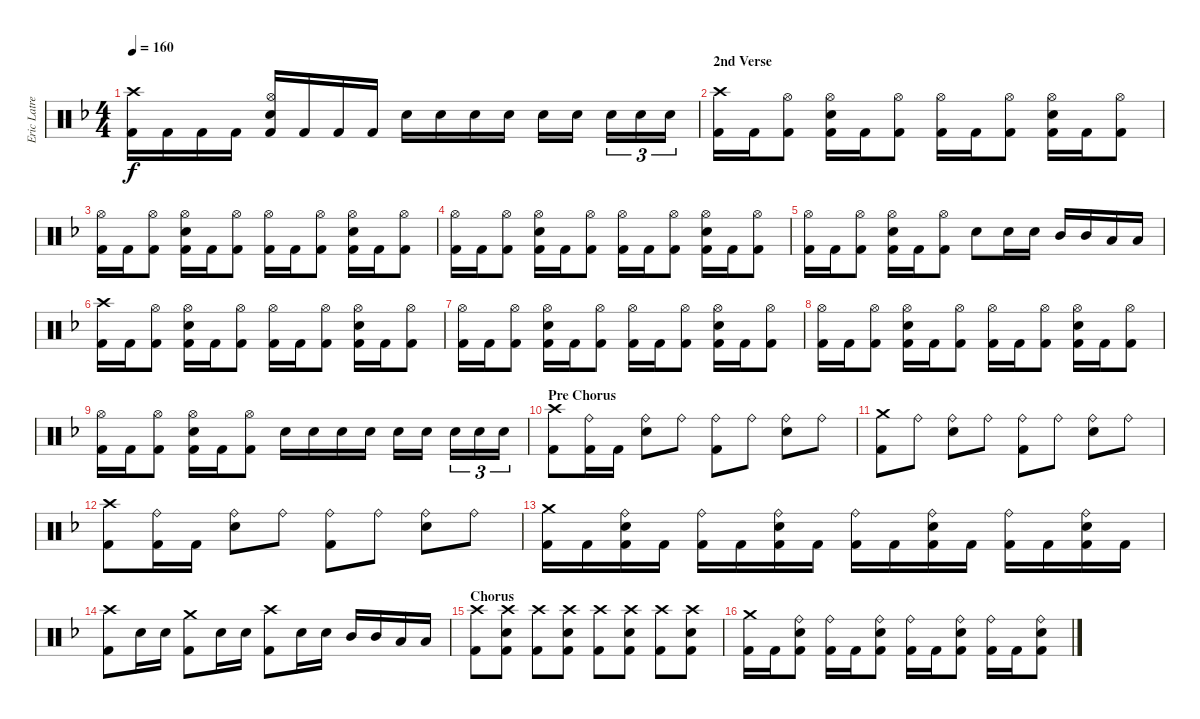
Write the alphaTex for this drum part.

\track ("Eric Latreille" "Eric Latre") {instrument percussion}
\staff {score}
\articulation defaults
\ts (4 4)
\tempo 160
\clef neutral
\ks dminor
("Crash high (hit)" "Kick (hit) 2").16{dy f} "Kick (hit) 2".16 "Kick (hit) 2".16 "Kick (hit) 2".16 ("Hi-Hat (open)" "Snare (hit) 2" "Kick (hit) 2").16 "Kick (hit) 2".16 "Kick (hit) 2".16 "Kick (hit) 2".16 "Snare (hit) 2".16 "Snare (hit) 2".16 "Snare (hit) 2".16 "Snare (hit) 2".16 "Snare (hit) 2".16 "Snare (hit) 2".16 "Snare (hit) 2".16{tu (3 2)} "Snare (hit) 2".16{tu (3 2)} "Snare (hit) 2".16{tu (3 2)} |
\section ("" "2nd Verse")
("Crash high (hit)" "Kick (hit) 2").16 "Kick (hit) 2".16 ("Hi-Hat (open)" "Kick (hit) 2").8 ("Hi-Hat (open)" "Snare (hit) 2" "Kick (hit) 2").16 "Kick (hit) 2".16 ("Hi-Hat (open)" "Kick (hit) 2").8 ("Hi-Hat (open)" "Kick (hit) 2").16 "Kick (hit) 2".16 ("Hi-Hat (open)" "Kick (hit) 2").8 ("Hi-Hat (open)" "Snare (hit) 2" "Kick (hit) 2").16 "Kick (hit) 2".16 ("Hi-Hat (open)" "Kick (hit) 2").8 |
("Hi-Hat (open)" "Kick (hit) 2").16 "Kick (hit) 2".16 ("Hi-Hat (open)" "Kick (hit) 2").8 ("Hi-Hat (open)" "Snare (hit) 2" "Kick (hit) 2").16 "Kick (hit) 2".16 ("Hi-Hat (open)" "Kick (hit) 2").8 ("Hi-Hat (open)" "Kick (hit) 2").16 "Kick (hit) 2".16 ("Hi-Hat (open)" "Kick (hit) 2").8 ("Hi-Hat (open)" "Snare (hit) 2" "Kick (hit) 2").16 "Kick (hit) 2".16 ("Hi-Hat (open)" "Kick (hit) 2").8 |
("Hi-Hat (open)" "Kick (hit) 2").16 "Kick (hit) 2".16 ("Hi-Hat (open)" "Kick (hit) 2").8 ("Hi-Hat (open)" "Snare (hit) 2" "Kick (hit) 2").16 "Kick (hit) 2".16 ("Hi-Hat (open)" "Kick (hit) 2").8 ("Hi-Hat (open)" "Kick (hit) 2").16 "Kick (hit) 2".16 ("Hi-Hat (open)" "Kick (hit) 2").8 ("Hi-Hat (open)" "Snare (hit) 2" "Kick (hit) 2").16 "Kick (hit) 2".16 ("Hi-Hat (open)" "Kick (hit) 2").8 |
("Hi-Hat (open)" "Kick (hit) 2").16 "Kick (hit) 2".16 ("Hi-Hat (open)" "Kick (hit) 2").8 ("Hi-Hat (open)" "Snare (hit) 2" "Kick (hit) 2").16 "Kick (hit) 2".16 ("Hi-Hat (open)" "Kick (hit) 2").8 "Snare (hit) 2".8 "Snare (hit) 2".16 "Snare (hit) 2".16 "Mid Tom (hit)".16 "Mid Tom (hit)".16 "Low Tom (hit)".16 "Low Tom (hit)".16 |
("Crash high (hit)" "Kick (hit) 2").16 "Kick (hit) 2".16 ("Hi-Hat (open)" "Kick (hit) 2").8 ("Hi-Hat (open)" "Snare (hit) 2" "Kick (hit) 2").16 "Kick (hit) 2".16 ("Hi-Hat (open)" "Kick (hit) 2").8 ("Hi-Hat (open)" "Kick (hit) 2").16 "Kick (hit) 2".16 ("Hi-Hat (open)" "Kick (hit) 2").8 ("Hi-Hat (open)" "Snare (hit) 2" "Kick (hit) 2").16 "Kick (hit) 2".16 ("Hi-Hat (open)" "Kick (hit) 2").8 |
("Hi-Hat (open)" "Kick (hit) 2").16 "Kick (hit) 2".16 ("Hi-Hat (open)" "Kick (hit) 2").8 ("Hi-Hat (open)" "Snare (hit) 2" "Kick (hit) 2").16 "Kick (hit) 2".16 ("Hi-Hat (open)" "Kick (hit) 2").8 ("Hi-Hat (open)" "Kick (hit) 2").16 "Kick (hit) 2".16 ("Hi-Hat (open)" "Kick (hit) 2").8 ("Hi-Hat (open)" "Snare (hit) 2" "Kick (hit) 2").16 "Kick (hit) 2".16 ("Hi-Hat (open)" "Kick (hit) 2").8 |
("Hi-Hat (open)" "Kick (hit) 2").16 "Kick (hit) 2".16 ("Hi-Hat (open)" "Kick (hit) 2").8 ("Hi-Hat (open)" "Snare (hit) 2" "Kick (hit) 2").16 "Kick (hit) 2".16 ("Hi-Hat (open)" "Kick (hit) 2").8 ("Hi-Hat (open)" "Kick (hit) 2").16 "Kick (hit) 2".16 ("Hi-Hat (open)" "Kick (hit) 2").8 ("Hi-Hat (open)" "Snare (hit) 2" "Kick (hit) 2").16 "Kick (hit) 2".16 ("Hi-Hat (open)" "Kick (hit) 2").8 |
("Hi-Hat (open)" "Kick (hit) 2").16 "Kick (hit) 2".16 ("Hi-Hat (open)" "Kick (hit) 2").8 ("Hi-Hat (open)" "Snare (hit) 2" "Kick (hit) 2").16 "Kick (hit) 2".16 ("Hi-Hat (open)" "Kick (hit) 2").8 "Snare (hit) 2".16 "Snare (hit) 2".16 "Snare (hit) 2".16 "Snare (hit) 2".16 "Snare (hit) 2".16 "Snare (hit) 2".16 "Snare (hit) 2".16{tu (3 2)} "Snare (hit) 2".16{tu (3 2)} "Snare (hit) 2".16{tu (3 2)} |
\section ("" "Pre Chorus")
("Crash high (hit)" "Kick (hit) 2").8 ("Ride (bell)" "Kick (hit) 2").16 "Kick (hit) 2".16 ("Ride (bell)" "Snare (hit) 2").8 "Ride (bell)".8 ("Ride (bell)" "Kick (hit) 2").8 "Ride (bell)".8 ("Ride (bell)" "Snare (hit) 2").8 "Ride (bell)".8 |
("Crash medium (hit)" "Kick (hit) 2").8 "Ride (bell)".8 ("Ride (bell)" "Snare (hit) 2").8 "Ride (bell)".8 ("Ride (bell)" "Kick (hit) 2").8 "Ride (bell)".8 ("Ride (bell)" "Snare (hit) 2").8 "Ride (bell)".8 |
("Crash high (hit)" "Kick (hit) 2").8 ("Ride (bell)" "Kick (hit) 2").16 "Kick (hit) 2".16 ("Ride (bell)" "Snare (hit) 2").8 "Ride (bell)".8 ("Ride (bell)" "Kick (hit) 2").8 "Ride (bell)".8 ("Ride (bell)" "Snare (hit) 2").8 "Ride (bell)".8 |
("Crash medium (hit)" "Kick (hit) 2").16 "Kick (hit) 2".16 ("Ride (bell)" "Snare (hit) 2" "Kick (hit) 2").16 "Kick (hit) 2".16 ("Ride (bell)" "Kick (hit) 2").16 "Kick (hit) 2".16 ("Ride (bell)" "Snare (hit) 2" "Kick (hit) 2").16 "Kick (hit) 2".16 ("Ride (bell)" "Kick (hit) 2").16 "Kick (hit) 2".16 ("Ride (bell)" "Snare (hit) 2" "Kick (hit) 2").16 "Kick (hit) 2".16 ("Ride (bell)" "Kick (hit) 2").16 "Kick (hit) 2".16 ("Ride (bell)" "Snare (hit) 2" "Kick (hit) 2").16 "Kick (hit) 2".16 |
("Crash high (hit)" "Kick (hit) 2").8 "Snare (hit) 2".16 "Snare (hit) 2".16 ("Crash medium (hit)" "Kick (hit) 2").8 "Snare (hit) 2".16 "Snare (hit) 2".16 ("Crash high (hit)" "Kick (hit) 2").8 "Snare (hit) 2".16 "Snare (hit) 2".16 "Mid Tom (hit)".16 "Mid Tom (hit)".16 "Low Tom (hit)".16 "Low Tom (hit)".16 |
\section ("" "Chorus")
("Crash high (hit)" "Kick (hit) 2").8 ("Crash high (hit)" "Snare (hit) 2" "Kick (hit) 2").8 ("Crash high (hit)" "Kick (hit) 2").8 ("Crash high (hit)" "Snare (hit) 2" "Kick (hit) 2").8 ("Crash high (hit)" "Kick (hit) 2").8 ("Crash high (hit)" "Snare (hit) 2" "Kick (hit) 2").8 ("Crash high (hit)" "Kick (hit) 2").8 ("Crash high (hit)" "Snare (hit) 2" "Kick (hit) 2").8 |
("Crash medium (hit)" "Kick (hit) 2").16 "Kick (hit) 2".16 ("Ride (bell)" "Snare (hit) 2" "Kick (hit) 2").8 ("Ride (bell)" "Kick (hit) 2").16 "Kick (hit) 2".16 ("Ride (bell)" "Snare (hit) 2" "Kick (hit) 2").8 ("Ride (bell)" "Kick (hit) 2").16 "Kick (hit) 2".16 ("Ride (bell)" "Snare (hit) 2" "Kick (hit) 2").8 ("Ride (bell)" "Kick (hit) 2").16 "Kick (hit) 2".16 ("Ride (bell)" "Snare (hit) 2" "Kick (hit) 2").8
